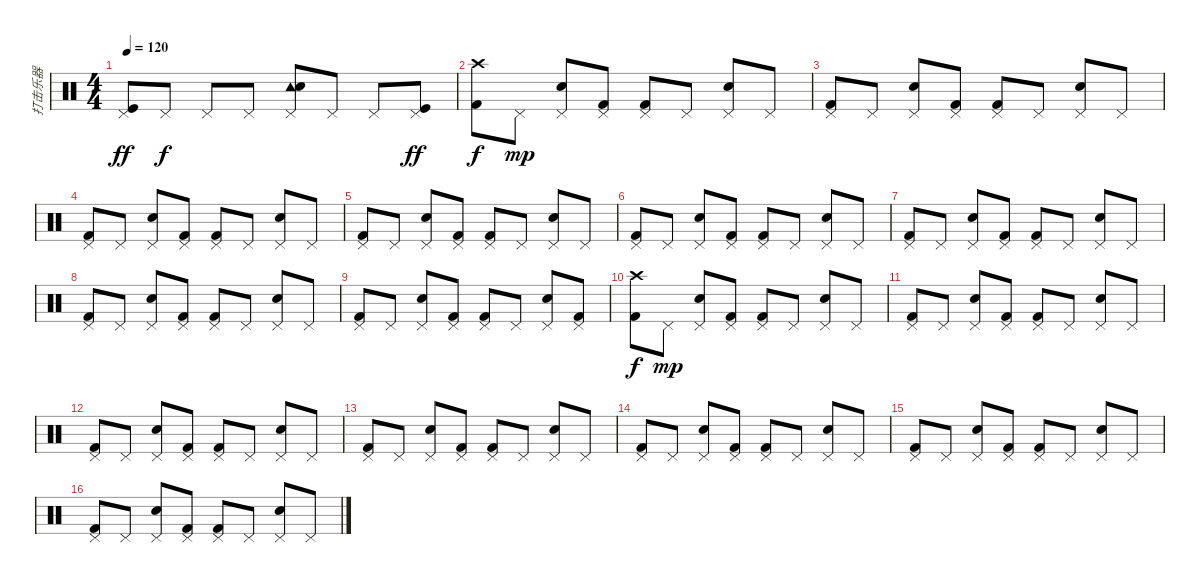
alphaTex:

\track ("打击乐器" "打击乐器") {instrument percussion}
\staff {score}
\articulation defaults
\ts (4 4)
\tempo 120
\clef neutral
\ks c
("Pedal Hi-Hat (hit)" "Kick (hit)").8{dy ff} "Pedal Hi-Hat (hit)".8{dy f} "Pedal Hi-Hat (hit)".8 "Pedal Hi-Hat (hit)".8 ("Pedal Hi-Hat (hit)" "Tambourine (hit)" "Electric Snare (hit)").8 "Pedal Hi-Hat (hit)".8 "Pedal Hi-Hat (hit)".8 ("Pedal Hi-Hat (hit)" "Kick (hit)").8{dy ff} |
("Crash high (hit)" "Kick (hit) 2").8{dy f} "Pedal Hi-Hat (hit)".8{dy mp} ("Pedal Hi-Hat (hit)" "Electric Snare (hit)").8 ("Pedal Hi-Hat (hit)" "Kick (hit) 2").8 ("Pedal Hi-Hat (hit)" "Kick (hit) 2").8 "Pedal Hi-Hat (hit)".8 ("Pedal Hi-Hat (hit)" "Electric Snare (hit)").8 "Pedal Hi-Hat (hit)".8 |
("Pedal Hi-Hat (hit)" "Kick (hit) 2").8 "Pedal Hi-Hat (hit)".8 ("Pedal Hi-Hat (hit)" "Electric Snare (hit)").8 ("Pedal Hi-Hat (hit)" "Kick (hit) 2").8 ("Pedal Hi-Hat (hit)" "Kick (hit) 2").8 "Pedal Hi-Hat (hit)".8 ("Pedal Hi-Hat (hit)" "Electric Snare (hit)").8 "Pedal Hi-Hat (hit)".8 |
("Pedal Hi-Hat (hit)" "Kick (hit) 2").8 "Pedal Hi-Hat (hit)".8 ("Pedal Hi-Hat (hit)" "Electric Snare (hit)").8 ("Pedal Hi-Hat (hit)" "Kick (hit) 2").8 ("Pedal Hi-Hat (hit)" "Kick (hit) 2").8 "Pedal Hi-Hat (hit)".8 ("Pedal Hi-Hat (hit)" "Electric Snare (hit)").8 "Pedal Hi-Hat (hit)".8 |
("Pedal Hi-Hat (hit)" "Kick (hit) 2").8 "Pedal Hi-Hat (hit)".8 ("Pedal Hi-Hat (hit)" "Electric Snare (hit)").8 ("Pedal Hi-Hat (hit)" "Kick (hit) 2").8 ("Pedal Hi-Hat (hit)" "Kick (hit) 2").8 "Pedal Hi-Hat (hit)".8 ("Pedal Hi-Hat (hit)" "Electric Snare (hit)").8 "Pedal Hi-Hat (hit)".8 |
("Pedal Hi-Hat (hit)" "Kick (hit) 2").8 "Pedal Hi-Hat (hit)".8 ("Pedal Hi-Hat (hit)" "Electric Snare (hit)").8 ("Pedal Hi-Hat (hit)" "Kick (hit) 2").8 ("Pedal Hi-Hat (hit)" "Kick (hit) 2").8 "Pedal Hi-Hat (hit)".8 ("Pedal Hi-Hat (hit)" "Electric Snare (hit)").8 "Pedal Hi-Hat (hit)".8 |
("Pedal Hi-Hat (hit)" "Kick (hit) 2").8 "Pedal Hi-Hat (hit)".8 ("Pedal Hi-Hat (hit)" "Electric Snare (hit)").8 ("Pedal Hi-Hat (hit)" "Kick (hit) 2").8 ("Pedal Hi-Hat (hit)" "Kick (hit) 2").8 "Pedal Hi-Hat (hit)".8 ("Pedal Hi-Hat (hit)" "Electric Snare (hit)").8 "Pedal Hi-Hat (hit)".8 |
("Pedal Hi-Hat (hit)" "Kick (hit) 2").8 "Pedal Hi-Hat (hit)".8 ("Pedal Hi-Hat (hit)" "Electric Snare (hit)").8 ("Pedal Hi-Hat (hit)" "Kick (hit) 2").8 ("Pedal Hi-Hat (hit)" "Kick (hit) 2").8 "Pedal Hi-Hat (hit)".8 ("Pedal Hi-Hat (hit)" "Electric Snare (hit)").8 "Pedal Hi-Hat (hit)".8 |
("Pedal Hi-Hat (hit)" "Kick (hit) 2").8 "Pedal Hi-Hat (hit)".8 ("Pedal Hi-Hat (hit)" "Electric Snare (hit)").8 ("Pedal Hi-Hat (hit)" "Kick (hit) 2").8 ("Pedal Hi-Hat (hit)" "Kick (hit) 2").8 "Pedal Hi-Hat (hit)".8 ("Pedal Hi-Hat (hit)" "Electric Snare (hit)").8 ("Pedal Hi-Hat (hit)" "Kick (hit) 2").8 |
("Crash high (hit)" "Kick (hit) 2").8{dy f} "Pedal Hi-Hat (hit)".8{dy mp} ("Pedal Hi-Hat (hit)" "Electric Snare (hit)").8 ("Pedal Hi-Hat (hit)" "Kick (hit) 2").8 ("Pedal Hi-Hat (hit)" "Kick (hit) 2").8 "Pedal Hi-Hat (hit)".8 ("Pedal Hi-Hat (hit)" "Electric Snare (hit)").8 "Pedal Hi-Hat (hit)".8 |
("Pedal Hi-Hat (hit)" "Kick (hit) 2").8 "Pedal Hi-Hat (hit)".8 ("Pedal Hi-Hat (hit)" "Electric Snare (hit)").8 ("Pedal Hi-Hat (hit)" "Kick (hit) 2").8 ("Pedal Hi-Hat (hit)" "Kick (hit) 2").8 "Pedal Hi-Hat (hit)".8 ("Pedal Hi-Hat (hit)" "Electric Snare (hit)").8 "Pedal Hi-Hat (hit)".8 |
("Pedal Hi-Hat (hit)" "Kick (hit) 2").8 "Pedal Hi-Hat (hit)".8 ("Pedal Hi-Hat (hit)" "Electric Snare (hit)").8 ("Pedal Hi-Hat (hit)" "Kick (hit) 2").8 ("Pedal Hi-Hat (hit)" "Kick (hit) 2").8 "Pedal Hi-Hat (hit)".8 ("Pedal Hi-Hat (hit)" "Electric Snare (hit)").8 "Pedal Hi-Hat (hit)".8 |
("Pedal Hi-Hat (hit)" "Kick (hit) 2").8 "Pedal Hi-Hat (hit)".8 ("Pedal Hi-Hat (hit)" "Electric Snare (hit)").8 ("Pedal Hi-Hat (hit)" "Kick (hit) 2").8 ("Pedal Hi-Hat (hit)" "Kick (hit) 2").8 "Pedal Hi-Hat (hit)".8 ("Pedal Hi-Hat (hit)" "Electric Snare (hit)").8 "Pedal Hi-Hat (hit)".8 |
("Pedal Hi-Hat (hit)" "Kick (hit) 2").8 "Pedal Hi-Hat (hit)".8 ("Pedal Hi-Hat (hit)" "Electric Snare (hit)").8 ("Pedal Hi-Hat (hit)" "Kick (hit) 2").8 ("Pedal Hi-Hat (hit)" "Kick (hit) 2").8 "Pedal Hi-Hat (hit)".8 ("Pedal Hi-Hat (hit)" "Electric Snare (hit)").8 "Pedal Hi-Hat (hit)".8 |
("Pedal Hi-Hat (hit)" "Kick (hit) 2").8 "Pedal Hi-Hat (hit)".8 ("Pedal Hi-Hat (hit)" "Electric Snare (hit)").8 ("Pedal Hi-Hat (hit)" "Kick (hit) 2").8 ("Pedal Hi-Hat (hit)" "Kick (hit) 2").8 "Pedal Hi-Hat (hit)".8 ("Pedal Hi-Hat (hit)" "Electric Snare (hit)").8 "Pedal Hi-Hat (hit)".8 |
("Pedal Hi-Hat (hit)" "Kick (hit) 2").8 "Pedal Hi-Hat (hit)".8 ("Pedal Hi-Hat (hit)" "Electric Snare (hit)").8 ("Pedal Hi-Hat (hit)" "Kick (hit) 2").8 ("Pedal Hi-Hat (hit)" "Kick (hit) 2").8 "Pedal Hi-Hat (hit)".8 ("Pedal Hi-Hat (hit)" "Electric Snare (hit)").8 "Pedal Hi-Hat (hit)".8
